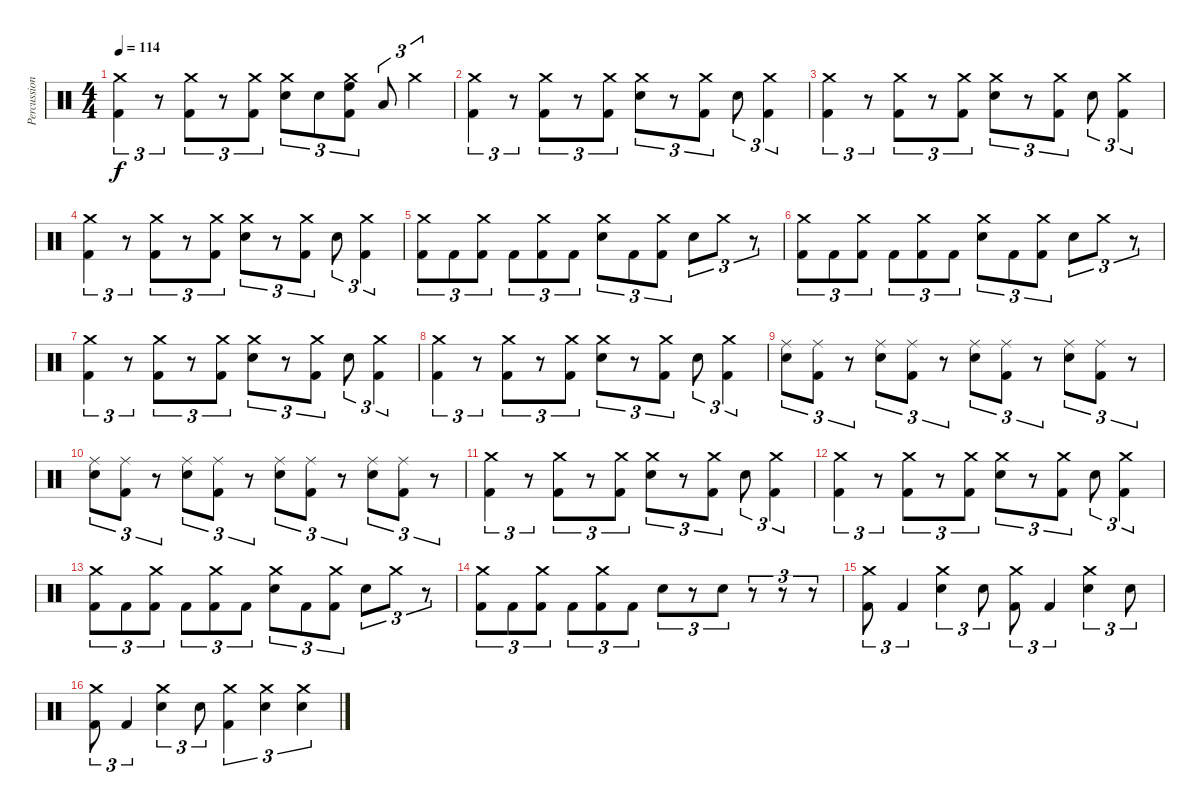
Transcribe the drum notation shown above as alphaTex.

\track ("Percussion" "Percussion") {instrument percussion}
\staff {score}
\articulation defaults
\ts (4 4)
\tempo 114
\clef neutral
\ks c
("Crash medium (hit)" "Kick (hit) 2").4{tu (3 2) dy f} r.8{tu (3 2)} ("Crash medium (hit)" "Kick (hit) 2").8{tu (3 2)} r.8{tu (3 2)} ("Crash medium (hit)" "Kick (hit) 2").8{tu (3 2)} ("Crash medium (hit)" "Electric Snare (hit)").8{tu (3 2)} "Electric Snare (hit)".8{tu (3 2)} ("Crash medium (hit)" "High Floor Tom (hit)" "Kick (hit) 2").8{tu (3 2)} "Low Tom (hit)".8{tu (3 2)} "Crash medium (hit)".4{tu (3 2)} |
("Crash medium (hit)" "Kick (hit) 2").4{tu (3 2)} r.8{tu (3 2)} ("Crash medium (hit)" "Kick (hit) 2").8{tu (3 2)} r.8{tu (3 2)} ("Crash medium (hit)" "Kick (hit) 2").8{tu (3 2)} ("Crash medium (hit)" "Electric Snare (hit)").8{tu (3 2)} r.8{tu (3 2)} ("Crash medium (hit)" "Kick (hit) 2").8{tu (3 2)} "Electric Snare (hit)".8{tu (3 2)} ("Crash medium (hit)" "Kick (hit) 2").4{tu (3 2)} |
("Crash medium (hit)" "Kick (hit) 2").4{tu (3 2)} r.8{tu (3 2)} ("Crash medium (hit)" "Kick (hit) 2").8{tu (3 2)} r.8{tu (3 2)} ("Crash medium (hit)" "Kick (hit) 2").8{tu (3 2)} ("Crash medium (hit)" "Electric Snare (hit)").8{tu (3 2)} r.8{tu (3 2)} ("Crash medium (hit)" "Kick (hit) 2").8{tu (3 2)} "Electric Snare (hit)".8{tu (3 2)} ("Crash medium (hit)" "Kick (hit) 2").4{tu (3 2)} |
("Crash medium (hit)" "Kick (hit) 2").4{tu (3 2)} r.8{tu (3 2)} ("Crash medium (hit)" "Kick (hit) 2").8{tu (3 2)} r.8{tu (3 2)} ("Crash medium (hit)" "Kick (hit) 2").8{tu (3 2)} ("Crash medium (hit)" "Electric Snare (hit)").8{tu (3 2)} r.8{tu (3 2)} ("Crash medium (hit)" "Kick (hit) 2").8{tu (3 2)} "Electric Snare (hit)".8{tu (3 2)} ("Crash medium (hit)" "Kick (hit) 2").4{tu (3 2)} |
("Crash medium (hit)" "Kick (hit) 2").8{tu (3 2)} "Kick (hit) 2".8{tu (3 2)} ("Crash medium (hit)" "Kick (hit) 2").8{tu (3 2)} "Kick (hit) 2".8{tu (3 2)} ("Crash medium (hit)" "Kick (hit) 2").8{tu (3 2)} "Kick (hit) 2".8{tu (3 2)} ("Crash medium (hit)" "Electric Snare (hit)").8{tu (3 2)} "Kick (hit) 2".8{tu (3 2)} ("Crash medium (hit)" "Kick (hit) 2").8{tu (3 2)} "Electric Snare (hit)".8{tu (3 2)} "Crash medium (hit)".8{tu (3 2)} r.8{tu (3 2)} |
("Crash medium (hit)" "Kick (hit) 2").8{tu (3 2)} "Kick (hit) 2".8{tu (3 2)} ("Crash medium (hit)" "Kick (hit) 2").8{tu (3 2)} "Kick (hit) 2".8{tu (3 2)} ("Crash medium (hit)" "Kick (hit) 2").8{tu (3 2)} "Kick (hit) 2".8{tu (3 2)} ("Crash medium (hit)" "Electric Snare (hit)").8{tu (3 2)} "Kick (hit) 2".8{tu (3 2)} ("Crash medium (hit)" "Kick (hit) 2").8{tu (3 2)} "Electric Snare (hit)".8{tu (3 2)} "Crash medium (hit)".8{tu (3 2)} r.8{tu (3 2)} |
("Crash medium (hit)" "Kick (hit) 2").4{tu (3 2)} r.8{tu (3 2)} ("Crash medium (hit)" "Kick (hit) 2").8{tu (3 2)} r.8{tu (3 2)} ("Crash medium (hit)" "Kick (hit) 2").8{tu (3 2)} ("Crash medium (hit)" "Electric Snare (hit)").8{tu (3 2)} r.8{tu (3 2)} ("Crash medium (hit)" "Kick (hit) 2").8{tu (3 2)} "Electric Snare (hit)".8{tu (3 2)} ("Crash medium (hit)" "Kick (hit) 2").4{tu (3 2)} |
("Crash medium (hit)" "Kick (hit) 2").4{tu (3 2)} r.8{tu (3 2)} ("Crash medium (hit)" "Kick (hit) 2").8{tu (3 2)} r.8{tu (3 2)} ("Crash medium (hit)" "Kick (hit) 2").8{tu (3 2)} ("Crash medium (hit)" "Electric Snare (hit)").8{tu (3 2)} r.8{tu (3 2)} ("Crash medium (hit)" "Kick (hit) 2").8{tu (3 2)} "Electric Snare (hit)".8{tu (3 2)} ("Crash medium (hit)" "Kick (hit) 2").4{tu (3 2)} |
("Ride (middle)" "Electric Snare (hit)").8{tu (3 2)} ("Ride (middle)" "Kick (hit) 2").8{tu (3 2)} r.8{tu (3 2)} ("Ride (middle)" "Electric Snare (hit)").8{tu (3 2)} ("Ride (middle)" "Kick (hit) 2").8{tu (3 2)} r.8{tu (3 2)} ("Ride (middle)" "Electric Snare (hit)").8{tu (3 2)} ("Ride (middle)" "Kick (hit) 2").8{tu (3 2)} r.8{tu (3 2)} ("Ride (middle)" "Electric Snare (hit)").8{tu (3 2)} ("Ride (middle)" "Kick (hit) 2").8{tu (3 2)} r.8{tu (3 2)} |
("Ride (middle)" "Electric Snare (hit)").8{tu (3 2)} ("Ride (middle)" "Kick (hit) 2").8{tu (3 2)} r.8{tu (3 2)} ("Ride (middle)" "Electric Snare (hit)").8{tu (3 2)} ("Ride (middle)" "Kick (hit) 2").8{tu (3 2)} r.8{tu (3 2)} ("Ride (middle)" "Electric Snare (hit)").8{tu (3 2)} ("Ride (middle)" "Kick (hit) 2").8{tu (3 2)} r.8{tu (3 2)} ("Ride (middle)" "Electric Snare (hit)").8{tu (3 2)} ("Ride (middle)" "Kick (hit) 2").8{tu (3 2)} r.8{tu (3 2)} |
("Crash medium (hit)" "Kick (hit) 2").4{tu (3 2)} r.8{tu (3 2)} ("Crash medium (hit)" "Kick (hit) 2").8{tu (3 2)} r.8{tu (3 2)} ("Crash medium (hit)" "Kick (hit) 2").8{tu (3 2)} ("Crash medium (hit)" "Electric Snare (hit)").8{tu (3 2)} r.8{tu (3 2)} ("Crash medium (hit)" "Kick (hit) 2").8{tu (3 2)} "Electric Snare (hit)".8{tu (3 2)} ("Crash medium (hit)" "Kick (hit) 2").4{tu (3 2)} |
("Crash medium (hit)" "Kick (hit) 2").4{tu (3 2)} r.8{tu (3 2)} ("Crash medium (hit)" "Kick (hit) 2").8{tu (3 2)} r.8{tu (3 2)} ("Crash medium (hit)" "Kick (hit) 2").8{tu (3 2)} ("Crash medium (hit)" "Electric Snare (hit)").8{tu (3 2)} r.8{tu (3 2)} ("Crash medium (hit)" "Kick (hit) 2").8{tu (3 2)} "Electric Snare (hit)".8{tu (3 2)} ("Crash medium (hit)" "Kick (hit) 2").4{tu (3 2)} |
("Crash medium (hit)" "Kick (hit) 2").8{tu (3 2)} "Kick (hit) 2".8{tu (3 2)} ("Crash medium (hit)" "Kick (hit) 2").8{tu (3 2)} "Kick (hit) 2".8{tu (3 2)} ("Crash medium (hit)" "Kick (hit) 2").8{tu (3 2)} "Kick (hit) 2".8{tu (3 2)} ("Crash medium (hit)" "Electric Snare (hit)").8{tu (3 2)} "Kick (hit) 2".8{tu (3 2)} ("Crash medium (hit)" "Kick (hit) 2").8{tu (3 2)} "Electric Snare (hit)".8{tu (3 2)} "Crash medium (hit)".8{tu (3 2)} r.8{tu (3 2)} |
("Crash medium (hit)" "Kick (hit) 2").8{tu (3 2)} "Kick (hit) 2".8{tu (3 2)} ("Crash medium (hit)" "Kick (hit) 2").8{tu (3 2)} "Kick (hit) 2".8{tu (3 2)} ("Crash medium (hit)" "Kick (hit) 2").8{tu (3 2)} "Kick (hit) 2".8{tu (3 2)} "Electric Snare (hit)".8{tu (3 2)} r.8{tu (3 2)} "Electric Snare (hit)".8{tu (3 2)} r.8{tu (3 2)} r.8{tu (3 2)} r.8{tu (3 2)} |
("Crash medium (hit)" "Kick (hit) 2").8{tu (3 2)} "Kick (hit) 2".4{tu (3 2)} ("Crash medium (hit)" "Electric Snare (hit)").4{tu (3 2)} "Electric Snare (hit)".8{tu (3 2)} ("Crash medium (hit)" "Kick (hit) 2").8{tu (3 2)} "Kick (hit) 2".4{tu (3 2)} ("Crash medium (hit)" "Electric Snare (hit)").4{tu (3 2)} "Electric Snare (hit)".8{tu (3 2)} |
("Crash medium (hit)" "Kick (hit) 2").8{tu (3 2)} "Kick (hit) 2".4{tu (3 2)} ("Crash medium (hit)" "Electric Snare (hit)").4{tu (3 2)} "Electric Snare (hit)".8{tu (3 2)} ("Crash medium (hit)" "Kick (hit) 2").4{tu (3 2)} ("Crash medium (hit)" "Electric Snare (hit)").4{tu (3 2)} ("Crash medium (hit)" "Electric Snare (hit)").4{tu (3 2)}
